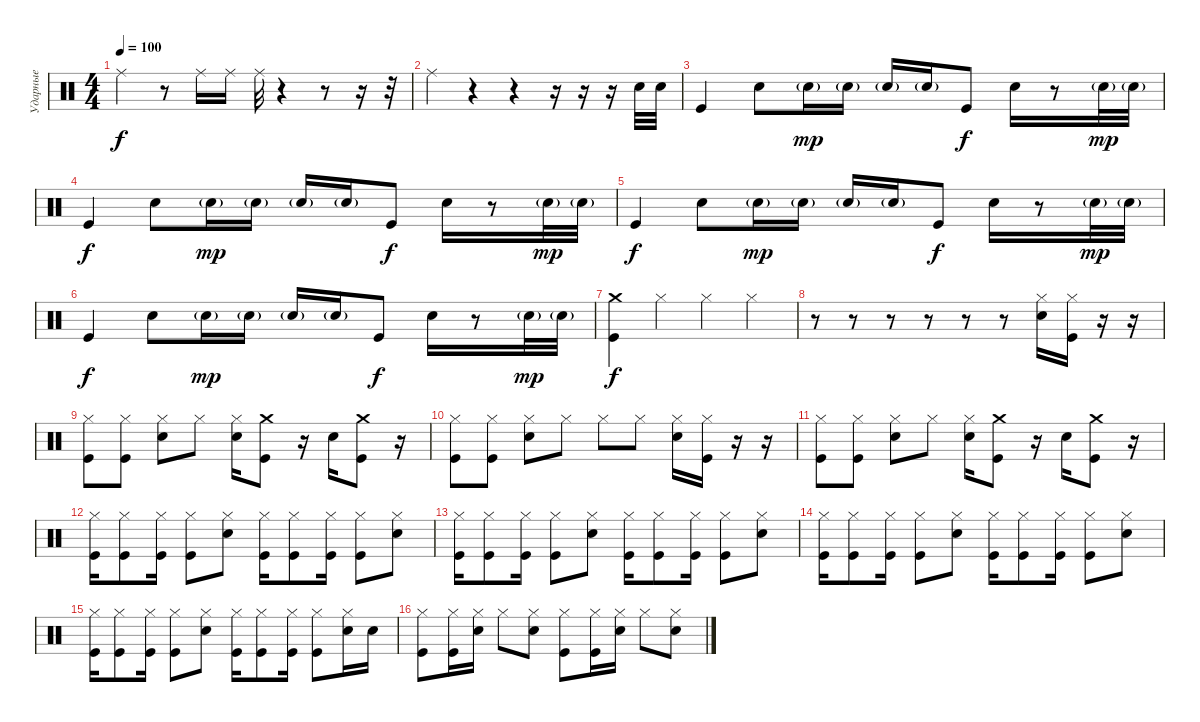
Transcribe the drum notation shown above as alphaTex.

\track ("Ударные" "Ударные") {instrument percussion}
\staff {score}
\articulation defaults
\ts (4 4)
\tempo 100
\clef neutral
\ks c "Ride (middle)".4{dy f}
r.8 "Ride (middle)".16 "Ride (middle)".16 "Ride (middle)".32 r.4 r.8 r.16 r.32 |
"Ride (middle)".4 r.4 r.4 r.16 r.16 r.16 "Snare (hit) 2".32 "Snare (hit) 2".32 |
"Kick (hit)".4 "Snare (hit) 2".8 "Snare (hit) 2"{g}.16{dy mp} "Snare (hit) 2"{g}.16 "Snare (hit) 2"{g}.16 "Snare (hit) 2"{g}.16 "Kick (hit)".8{dy f} "Snare (hit) 2".16 r.8 "Snare (hit) 2"{g}.32{dy mp} "Snare (hit) 2"{g}.32 |
"Kick (hit)".4{dy f} "Snare (hit) 2".8 "Snare (hit) 2"{g}.16{dy mp} "Snare (hit) 2"{g}.16 "Snare (hit) 2"{g}.16 "Snare (hit) 2"{g}.16 "Kick (hit)".8{dy f} "Snare (hit) 2".16 r.8 "Snare (hit) 2"{g}.32{dy mp} "Snare (hit) 2"{g}.32 |
"Kick (hit)".4{dy f} "Snare (hit) 2".8 "Snare (hit) 2"{g}.16{dy mp} "Snare (hit) 2"{g}.16 "Snare (hit) 2"{g}.16 "Snare (hit) 2"{g}.16 "Kick (hit)".8{dy f} "Snare (hit) 2".16 r.8 "Snare (hit) 2"{g}.32{dy mp} "Snare (hit) 2"{g}.32 |
"Kick (hit)".4{dy f} "Snare (hit) 2".8 "Snare (hit) 2"{g}.16{dy mp} "Snare (hit) 2"{g}.16 "Snare (hit) 2"{g}.16 "Snare (hit) 2"{g}.16 "Kick (hit)".8{dy f} "Snare (hit) 2".16 r.8 "Snare (hit) 2"{g}.32{dy mp} "Snare (hit) 2"{g}.32 |
("Kick (hit)" "Crash medium (hit)").4{dy f} "Hi-Hat (closed)".4 "Hi-Hat (closed)".4 "Hi-Hat (closed)".4 |
r.8 r.8 r.8 r.8 r.8 r.8 ("Snare (hit) 2" "Hi-Hat (closed)").16 ("Kick (hit)" "Hi-Hat (closed)").16 r.16 r.16 |
("Kick (hit)" "Hi-Hat (closed)").8 ("Kick (hit)" "Hi-Hat (closed)").8 ("Snare (hit) 2" "Hi-Hat (closed)").8 "Hi-Hat (closed)".8 ("Snare (hit) 2" "Hi-Hat (closed)").16 ("Kick (hit)" "Crash medium (hit)").8 r.16 "Snare (hit) 2".16 ("Kick (hit)" "Crash medium (hit)").8 r.16 |
("Kick (hit)" "Hi-Hat (closed)").8 ("Kick (hit)" "Hi-Hat (closed)").8 ("Snare (hit) 2" "Hi-Hat (closed)").8 "Hi-Hat (closed)".8 "Hi-Hat (closed)".8 "Hi-Hat (closed)".8 ("Snare (hit) 2" "Hi-Hat (closed)").16 ("Kick (hit)" "Hi-Hat (closed)").16 r.16 r.16 |
("Kick (hit)" "Hi-Hat (closed)").8 ("Kick (hit)" "Hi-Hat (closed)").8 ("Snare (hit) 2" "Hi-Hat (closed)").8 "Hi-Hat (closed)".8 ("Snare (hit) 2" "Hi-Hat (closed)").16 ("Kick (hit)" "Crash medium (hit)").8 r.16 "Snare (hit) 2".16 ("Kick (hit)" "Crash medium (hit)").8 r.16 |
("Hi-Hat (closed)" "Kick (hit)").16 ("Hi-Hat (closed)" "Kick (hit)").8 ("Hi-Hat (closed)" "Kick (hit)").16 ("Hi-Hat (closed)" "Kick (hit)").8 ("Hi-Hat (closed)" "Snare (hit) 2").8 ("Hi-Hat (closed)" "Kick (hit)").16 ("Hi-Hat (closed)" "Kick (hit)").8 ("Hi-Hat (closed)" "Kick (hit)").16 ("Hi-Hat (closed)" "Kick (hit)").8 ("Hi-Hat (closed)" "Snare (hit) 2").8 |
("Hi-Hat (closed)" "Kick (hit)").16 ("Hi-Hat (closed)" "Kick (hit)").8 ("Hi-Hat (closed)" "Kick (hit)").16 ("Hi-Hat (closed)" "Kick (hit)").8 ("Hi-Hat (closed)" "Snare (hit) 2").8 ("Hi-Hat (closed)" "Kick (hit)").16 ("Hi-Hat (closed)" "Kick (hit)").8 ("Hi-Hat (closed)" "Kick (hit)").16 ("Hi-Hat (closed)" "Kick (hit)").8 ("Hi-Hat (closed)" "Snare (hit) 2").8 |
("Hi-Hat (closed)" "Kick (hit)").16 ("Hi-Hat (closed)" "Kick (hit)").8 ("Hi-Hat (closed)" "Kick (hit)").16 ("Hi-Hat (closed)" "Kick (hit)").8 ("Hi-Hat (closed)" "Snare (hit) 2").8 ("Hi-Hat (closed)" "Kick (hit)").16 ("Hi-Hat (closed)" "Kick (hit)").8 ("Hi-Hat (closed)" "Kick (hit)").16 ("Hi-Hat (closed)" "Kick (hit)").8 ("Hi-Hat (closed)" "Snare (hit) 2").8 |
("Hi-Hat (closed)" "Kick (hit)").16 ("Hi-Hat (closed)" "Kick (hit)").8 ("Hi-Hat (closed)" "Kick (hit)").16 ("Hi-Hat (closed)" "Kick (hit)").8 ("Hi-Hat (closed)" "Snare (hit) 2").8 ("Hi-Hat (closed)" "Kick (hit)").16 ("Hi-Hat (closed)" "Kick (hit)").8 ("Hi-Hat (closed)" "Kick (hit)").16 ("Hi-Hat (closed)" "Kick (hit)").8 ("Hi-Hat (closed)" "Snare (hit) 2").16 "Snare (hit) 2".16 |
("Kick (hit)" "Hi-Hat (closed)").8 ("Kick (hit)" "Hi-Hat (closed)").16 ("Snare (hit) 2" "Hi-Hat (closed)").16 "Hi-Hat (closed)".8 ("Snare (hit) 2" "Hi-Hat (closed)").8 ("Kick (hit)" "Hi-Hat (closed)").8 ("Kick (hit)" "Hi-Hat (closed)").16 ("Snare (hit) 2" "Hi-Hat (closed)").16 "Hi-Hat (closed)".8 ("Snare (hit) 2" "Hi-Hat (closed)").8
